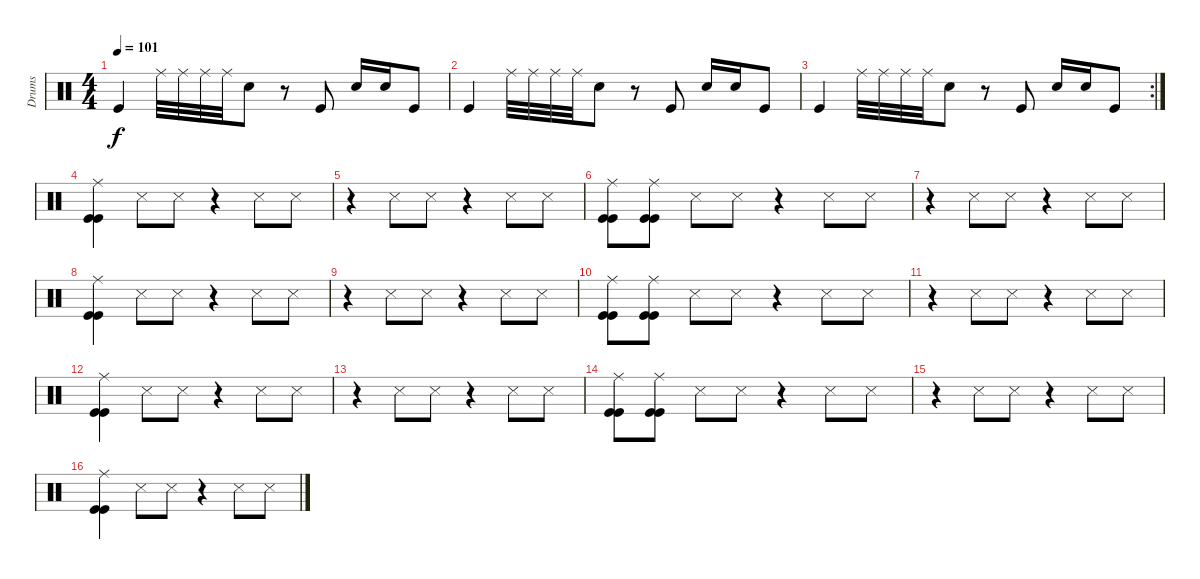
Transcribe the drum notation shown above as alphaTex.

\track ("Drums" "Drums") {instrument percussion}
\staff {score}
\articulation defaults
\ts (4 4)
\tempo 101
\clef neutral
\ks c "Kick (hit)".4{dy f} "Ride (middle)".32 "Ride (middle)".32 "Ride (middle)".32 "Ride (middle)".32 "Electric Snare (hit)".8
r.8 "Kick (hit)".8 "Electric Snare (hit)".16 "Electric Snare (hit)".16 "Kick (hit)".8 |
"Kick (hit)".4 "Ride (middle)".32 "Ride (middle)".32 "Ride (middle)".32 "Ride (middle)".32 "Electric Snare (hit)".8 r.8 "Kick (hit)".8 "Electric Snare (hit)".16 "Electric Snare (hit)".16 "Kick (hit)".8 |
\rc 2 "Kick (hit)".4 "Ride (middle)".32 "Ride (middle)".32 "Ride (middle)".32 "Ride (middle)".32 "Electric Snare (hit)".8
r.8 "Kick (hit)".8 "Electric Snare (hit)".16 "Electric Snare (hit)".16 "Kick (hit)".8 |
("Ride (middle)" "Kick (hit)" "Kick (hit)").4 "Snare (side stick) 3".8 "Snare (side stick) 3".8 r.4 "Snare (side stick) 3".8 "Snare (side stick) 3".8 |
r.4 "Snare (side stick) 3".8 "Snare (side stick) 3".8 r.4 "Snare (side stick) 3".8 "Snare (side stick) 3".8 |
("Ride (middle)" "Kick (hit)" "Kick (hit)").8 ("Ride (middle)" "Kick (hit)" "Kick (hit)").8 "Snare (side stick) 3".8 "Snare (side stick) 3".8 r.4 "Snare (side stick) 3".8 "Snare (side stick) 3".8 |
r.4 "Snare (side stick) 3".8 "Snare (side stick) 3".8 r.4 "Snare (side stick) 3".8 "Snare (side stick) 3".8 |
("Ride (middle)" "Kick (hit)" "Kick (hit)").4 "Snare (side stick) 3".8 "Snare (side stick) 3".8 r.4 "Snare (side stick) 3".8 "Snare (side stick) 3".8 |
r.4 "Snare (side stick) 3".8 "Snare (side stick) 3".8 r.4 "Snare (side stick) 3".8 "Snare (side stick) 3".8 |
("Ride (middle)" "Kick (hit)" "Kick (hit)").8 ("Ride (middle)" "Kick (hit)" "Kick (hit)").8 "Snare (side stick) 3".8 "Snare (side stick) 3".8 r.4 "Snare (side stick) 3".8 "Snare (side stick) 3".8 |
r.4 "Snare (side stick) 3".8 "Snare (side stick) 3".8 r.4 "Snare (side stick) 3".8 "Snare (side stick) 3".8 |
("Ride (middle)" "Kick (hit)" "Kick (hit)").4 "Snare (side stick) 3".8 "Snare (side stick) 3".8 r.4 "Snare (side stick) 3".8 "Snare (side stick) 3".8 |
r.4 "Snare (side stick) 3".8 "Snare (side stick) 3".8 r.4 "Snare (side stick) 3".8 "Snare (side stick) 3".8 |
("Ride (middle)" "Kick (hit)" "Kick (hit)").8 ("Ride (middle)" "Kick (hit)" "Kick (hit)").8 "Snare (side stick) 3".8 "Snare (side stick) 3".8 r.4 "Snare (side stick) 3".8 "Snare (side stick) 3".8 |
r.4 "Snare (side stick) 3".8 "Snare (side stick) 3".8 r.4 "Snare (side stick) 3".8 "Snare (side stick) 3".8 |
("Ride (middle)" "Kick (hit)" "Kick (hit)").4 "Snare (side stick) 3".8 "Snare (side stick) 3".8 r.4 "Snare (side stick) 3".8 "Snare (side stick) 3".8
